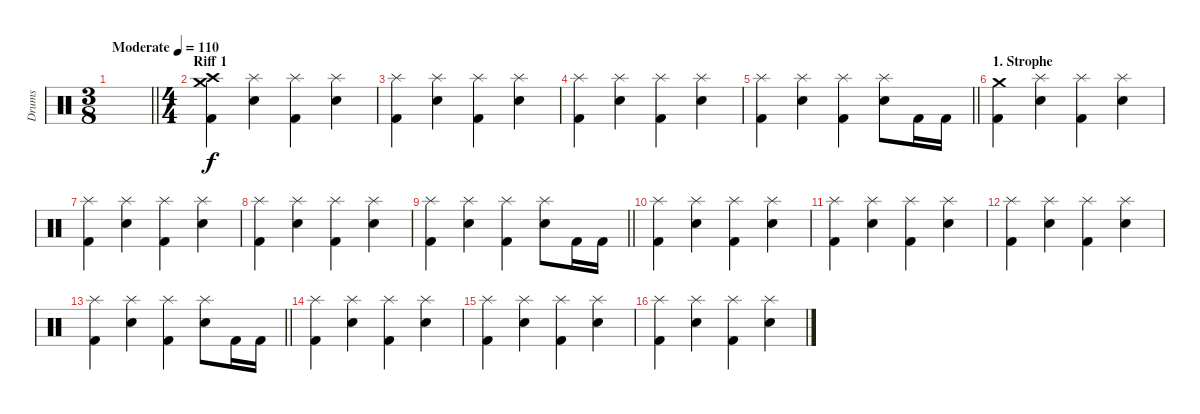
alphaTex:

\track ("Drums" "Drums") {instrument percussion}
\staff {score}
\articulation defaults
\ts (3 8)
\tempo (110 "Moderate")
\clef neutral
\barLineRight lightlight
\ks c
|
\ts (4 4)
\section ("" "Riff 1")
("Crash medium (hit)" "Crash high (hit)" "Kick (hit) 2").4 ("Splash (hit)" "Snare (hit) 2").4 ("Splash (hit)" "Kick (hit) 2").4 ("Splash (hit)" "Snare (hit) 2").4 |
("Splash (hit)" "Kick (hit) 2").4 ("Splash (hit)" "Snare (hit) 2").4 ("Splash (hit)" "Kick (hit) 2").4 ("Splash (hit)" "Snare (hit) 2").4 |
("Splash (hit)" "Kick (hit) 2").4 ("Splash (hit)" "Snare (hit) 2").4 ("Splash (hit)" "Kick (hit) 2").4 ("Splash (hit)" "Snare (hit) 2").4 |
\barLineRight lightlight
("Splash (hit)" "Kick (hit) 2").4 ("Splash (hit)" "Snare (hit) 2").4 ("Splash (hit)" "Kick (hit) 2").4 ("Splash (hit)" "Snare (hit) 2").8 "Kick (hit) 2".16 "Kick (hit) 2".16 |
\section ("" "1. Strophe")
("Crash medium (hit)" "Kick (hit) 2").4 ("Splash (hit)" "Snare (hit) 2").4 ("Splash (hit)" "Kick (hit) 2").4 ("Splash (hit)" "Snare (hit) 2").4 |
("Splash (hit)" "Kick (hit) 2").4 ("Splash (hit)" "Snare (hit) 2").4 ("Splash (hit)" "Kick (hit) 2").4 ("Splash (hit)" "Snare (hit) 2").4 |
("Splash (hit)" "Kick (hit) 2").4 ("Splash (hit)" "Snare (hit) 2").4 ("Splash (hit)" "Kick (hit) 2").4 ("Splash (hit)" "Snare (hit) 2").4 |
\barLineRight lightlight
("Splash (hit)" "Kick (hit) 2").4 ("Splash (hit)" "Snare (hit) 2").4 ("Splash (hit)" "Kick (hit) 2").4 ("Splash (hit)" "Snare (hit) 2").8 "Kick (hit) 2".16 "Kick (hit) 2".16 |
("Splash (hit)" "Kick (hit) 2").4 ("Splash (hit)" "Snare (hit) 2").4 ("Splash (hit)" "Kick (hit) 2").4 ("Splash (hit)" "Snare (hit) 2").4 |
("Splash (hit)" "Kick (hit) 2").4 ("Splash (hit)" "Snare (hit) 2").4 ("Splash (hit)" "Kick (hit) 2").4 ("Splash (hit)" "Snare (hit) 2").4 |
("Splash (hit)" "Kick (hit) 2").4 ("Splash (hit)" "Snare (hit) 2").4 ("Splash (hit)" "Kick (hit) 2").4 ("Splash (hit)" "Snare (hit) 2").4 |
\barLineRight lightlight
("Splash (hit)" "Kick (hit) 2").4 ("Splash (hit)" "Snare (hit) 2").4 ("Splash (hit)" "Kick (hit) 2").4 ("Splash (hit)" "Snare (hit) 2").8 "Kick (hit) 2".16 "Kick (hit) 2".16 |
("Splash (hit)" "Kick (hit) 2").4 ("Splash (hit)" "Snare (hit) 2").4 ("Splash (hit)" "Kick (hit) 2").4 ("Splash (hit)" "Snare (hit) 2").4 |
("Splash (hit)" "Kick (hit) 2").4 ("Splash (hit)" "Snare (hit) 2").4 ("Splash (hit)" "Kick (hit) 2").4 ("Splash (hit)" "Snare (hit) 2").4 |
("Splash (hit)" "Kick (hit) 2").4 ("Splash (hit)" "Snare (hit) 2").4 ("Splash (hit)" "Kick (hit) 2").4 ("Splash (hit)" "Snare (hit) 2").4
